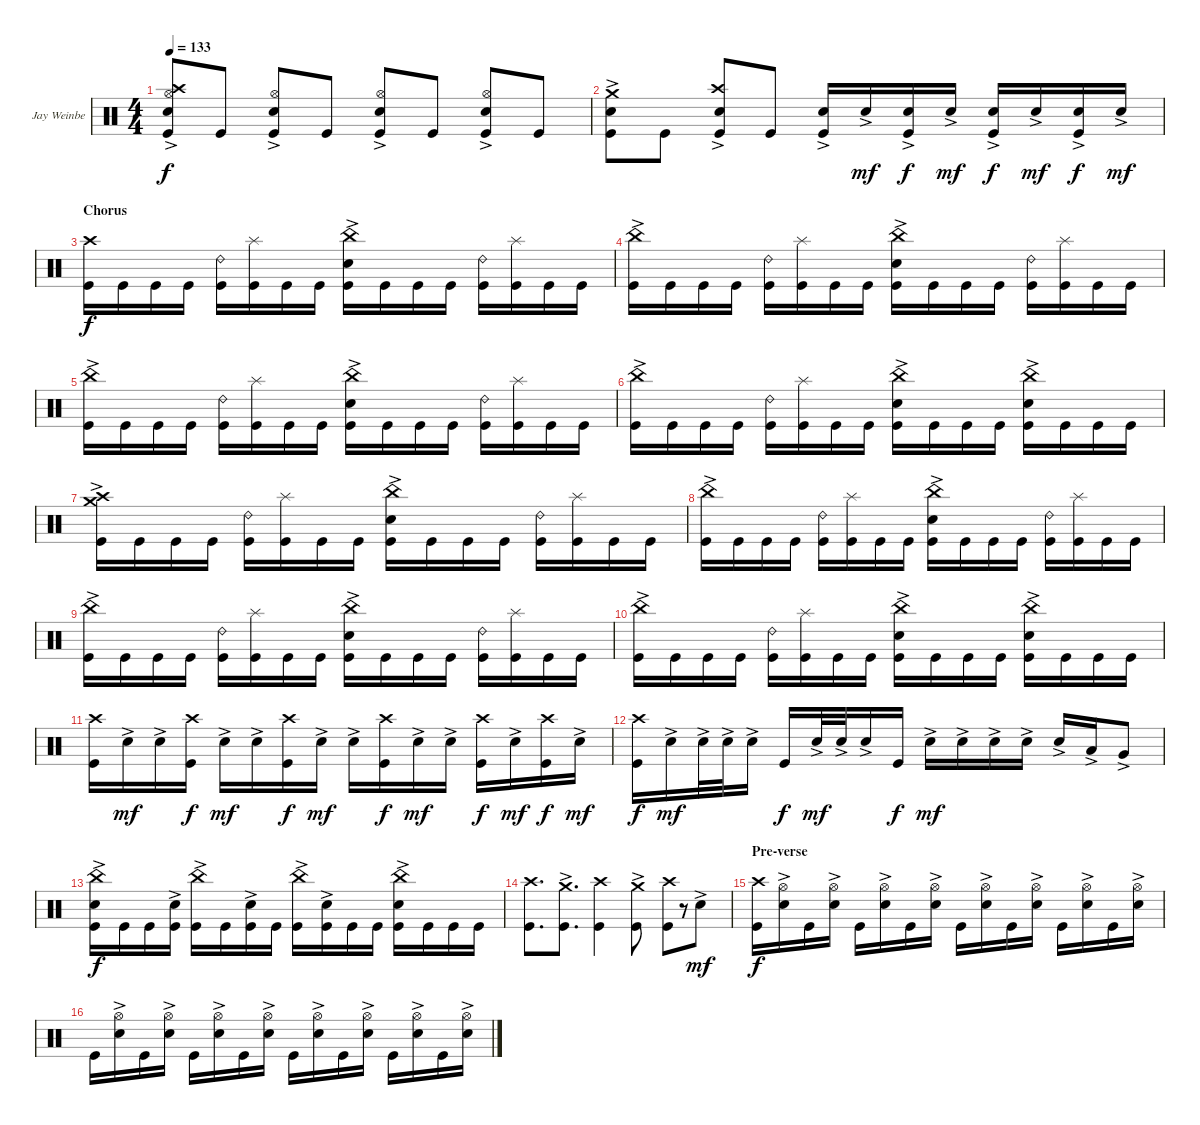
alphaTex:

\bracketExtendMode groupsimilarinstruments
\firstSystemTrackNameOrientation horizontal
\otherSystemsTrackNameOrientation horizontal
\track ("Jay Weinberg" "Jay Weinbe") {instrument percussion}
\staff {score}
\articulation defaults
\ts (4 4)
\tempo 133
\clef neutral
\ks c
("Snare (hit) 2"{ac} "Hi-Hat (open)" "Crash high (hit)" "Kick (hit)").8{dy f} "Kick (hit)".8 ("Snare (hit) 2"{ac} "Hi-Hat (open)" "Kick (hit)").8 "Kick (hit)".8 ("Snare (hit) 2"{ac} "Hi-Hat (open)" "Kick (hit)").8 "Kick (hit)".8 ("Snare (hit) 2"{ac} "Hi-Hat (open)" "Kick (hit)").8 "Kick (hit)".8 |
("Kick (hit)" "Snare (hit) 2"{ac} "Crash medium (hit)").8 "Kick (hit)".8 ("Kick (hit)" "Snare (hit) 2"{ac} "Crash high (hit)").8 "Kick (hit)".8 ("Kick (hit)" "Snare (hit) 2"{ac}).16 "Snare (hit) 2"{ac}.16{dy mf} ("Snare (hit) 2"{ac} "Kick (hit)").16{dy f} "Snare (hit) 2"{ac}.16{dy mf} ("Snare (hit) 2"{ac} "Kick (hit)").16{dy f} "Snare (hit) 2"{ac}.16{dy mf} ("Snare (hit) 2"{ac} "Kick (hit)").16{dy f} "Snare (hit) 2"{ac}.16{dy mf} |
\section ("" "Chorus")
("Kick (hit)" "Crash high (hit)").16{dy f} "Kick (hit)".16 "Kick (hit)".16 "Kick (hit)".16 ("Kick (hit)" "Ride (bell) 2").16 ("Kick (hit)" "Splash (hit)").16 "Kick (hit)".16 "Kick (hit)".16 ("Kick (hit)" "Snare (hit) 2"{ac} "China (hit)"{ac}).16 "Kick (hit)".16 "Kick (hit)".16 "Kick (hit)".16 ("Kick (hit)" "Ride (bell) 2").16 ("Kick (hit)" "Splash (hit)").16 "Kick (hit)".16 "Kick (hit)".16 |
("Kick (hit)" "China (hit)"{ac}).16 "Kick (hit)".16 "Kick (hit)".16 "Kick (hit)".16 ("Kick (hit)" "Ride (bell) 2").16 ("Kick (hit)" "Splash (hit)").16 "Kick (hit)".16 "Kick (hit)".16 ("Kick (hit)" "Snare (hit) 2"{ac} "China (hit)"{ac}).16 "Kick (hit)".16 "Kick (hit)".16 "Kick (hit)".16 ("Kick (hit)" "Ride (bell) 2").16 ("Kick (hit)" "Splash (hit)").16 "Kick (hit)".16 "Kick (hit)".16 |
("Kick (hit)" "China (hit)"{ac}).16 "Kick (hit)".16 "Kick (hit)".16 "Kick (hit)".16 ("Kick (hit)" "Ride (bell) 2").16 ("Kick (hit)" "Splash (hit)").16 "Kick (hit)".16 "Kick (hit)".16 ("Kick (hit)" "Snare (hit) 2"{ac} "China (hit)"{ac}).16 "Kick (hit)".16 "Kick (hit)".16 "Kick (hit)".16 ("Kick (hit)" "Ride (bell) 2").16 ("Kick (hit)" "Splash (hit)").16 "Kick (hit)".16 "Kick (hit)".16 |
("Kick (hit)" "China (hit)"{ac}).16 "Kick (hit)".16 "Kick (hit)".16 "Kick (hit)".16 ("Kick (hit)" "Ride (bell) 2").16 ("Kick (hit)" "Splash (hit)").16 "Kick (hit)".16 "Kick (hit)".16 ("Kick (hit)" "Snare (hit) 2"{ac} "China (hit)"{ac}).16 "Kick (hit)".16 "Kick (hit)".16 "Kick (hit)".16 ("Kick (hit)" "Snare (hit) 2"{ac} "China (hit)"{ac}).16 "Kick (hit)".16 "Kick (hit)".16 "Kick (hit)".16 |
("Kick (hit)" "Crash high (hit)" "Crash medium (hit)"{ac}).16 "Kick (hit)".16 "Kick (hit)".16 "Kick (hit)".16 ("Kick (hit)" "Ride (bell) 2").16 ("Kick (hit)" "Splash (hit)").16 "Kick (hit)".16 "Kick (hit)".16 ("Kick (hit)" "Snare (hit) 2"{ac} "China (hit)"{ac}).16 "Kick (hit)".16 "Kick (hit)".16 "Kick (hit)".16 ("Kick (hit)" "Ride (bell) 2").16 ("Kick (hit)" "Splash (hit)").16 "Kick (hit)".16 "Kick (hit)".16 |
("Kick (hit)" "China (hit)"{ac}).16 "Kick (hit)".16 "Kick (hit)".16 "Kick (hit)".16 ("Kick (hit)" "Ride (bell) 2").16 ("Kick (hit)" "Splash (hit)").16 "Kick (hit)".16 "Kick (hit)".16 ("Kick (hit)" "Snare (hit) 2"{ac} "China (hit)"{ac}).16 "Kick (hit)".16 "Kick (hit)".16 "Kick (hit)".16 ("Kick (hit)" "Ride (bell) 2").16 ("Kick (hit)" "Splash (hit)").16 "Kick (hit)".16 "Kick (hit)".16 |
("Kick (hit)" "China (hit)"{ac}).16 "Kick (hit)".16 "Kick (hit)".16 "Kick (hit)".16 ("Kick (hit)" "Ride (bell) 2").16 ("Kick (hit)" "Splash (hit)").16 "Kick (hit)".16 "Kick (hit)".16 ("Kick (hit)" "Snare (hit) 2"{ac} "China (hit)"{ac}).16 "Kick (hit)".16 "Kick (hit)".16 "Kick (hit)".16 ("Kick (hit)" "Ride (bell) 2").16 ("Kick (hit)" "Splash (hit)").16 "Kick (hit)".16 "Kick (hit)".16 |
("Kick (hit)" "China (hit)"{ac}).16 "Kick (hit)".16 "Kick (hit)".16 "Kick (hit)".16 ("Kick (hit)" "Ride (bell) 2").16 ("Kick (hit)" "Splash (hit)").16 "Kick (hit)".16 "Kick (hit)".16 ("Kick (hit)" "Snare (hit) 2"{ac} "China (hit)"{ac}).16 "Kick (hit)".16 "Kick (hit)".16 "Kick (hit)".16 ("Kick (hit)" "Snare (hit) 2"{ac} "China (hit)"{ac}).16 "Kick (hit)".16 "Kick (hit)".16 "Kick (hit)".16 |
("Kick (hit)" "Crash high (hit)").16 "Snare (hit) 2"{ac}.16{dy mf} "Snare (hit) 2"{ac}.16 ("Kick (hit)" "Crash high (hit)").16{dy f} "Snare (hit) 2"{ac}.16{dy mf} "Snare (hit) 2"{ac}.16 ("Kick (hit)" "Crash high (hit)").16{dy f} "Snare (hit) 2"{ac}.16{dy mf} "Snare (hit) 2"{ac}.16 ("Kick (hit)" "Crash high (hit)").16{dy f} "Snare (hit) 2"{ac}.16{dy mf} "Snare (hit) 2"{ac}.16 ("Kick (hit)" "Crash high (hit)").16{dy f} "Snare (hit) 2"{ac}.16{dy mf} ("Kick (hit)" "Crash high (hit)").16{dy f} "Snare (hit) 2"{ac}.16{dy mf} |
("Kick (hit)" "Crash high (hit)").16{dy f} "Snare (hit) 2"{ac}.16{dy mf} "Snare (hit) 2"{ac}.32 "Snare (hit) 2"{ac}.32 "Snare (hit) 2"{ac}.16 "Kick (hit)".16{dy f} "Snare (hit) 2"{ac}.32{dy mf} "Snare (hit) 2"{ac}.32 "Snare (hit) 2"{ac}.16 "Kick (hit)".16{dy f} "Snare (hit) 2"{ac}.16{dy mf} "Snare (hit) 2"{ac}.16 "Snare (hit) 2"{ac}.16 "Snare (hit) 2"{ac}.16 "Snare (hit) 2"{ac}.16 "Low Tom (hit)"{ac}.16 "Very Low Tom (hit)"{ac}.8 |
("Kick (hit)" "China (hit)"{ac} "Snare (hit) 2"{ac}).16{dy f} "Kick (hit)".16 "Kick (hit)".16 ("Kick (hit)" "Snare (hit) 2"{ac}).16 ("Kick (hit)" "China (hit)"{ac}).16 "Kick (hit)".16 ("Kick (hit)" "Snare (hit) 2"{ac}).16 "Kick (hit)".16 ("Kick (hit)" "China (hit)"{ac}).16 ("Kick (hit)" "Snare (hit) 2"{ac}).16 "Kick (hit)".16 "Kick (hit)".16 ("Kick (hit)" "China (hit)"{ac} "Snare (hit) 2"{ac}).16 "Kick (hit)".16 "Kick (hit)".16 "Kick (hit)".16 |
("Kick (hit)" "Crash high (hit)").8{d} ("Kick (hit)" "Crash medium (hit)"{ac}).8{d} ("Kick (hit)" "Crash high (hit)").4 ("Kick (hit)" "Crash medium (hit)"{ac}).8 ("Kick (hit)" "Crash high (hit)").8 r.8{gr} "Snare (hit) 2"{ac}.8{dy mf} |
\section ("" "Pre-verse")
("Kick (hit)" "Crash high (hit)").16{dy f} ("Snare (hit) 2"{ac} "Hi-Hat (open)").16 "Kick (hit)".16 ("Snare (hit) 2"{ac} "Hi-Hat (open)").16 "Kick (hit)".16 ("Snare (hit) 2"{ac} "Hi-Hat (open)").16 "Kick (hit)".16 ("Snare (hit) 2"{ac} "Hi-Hat (open)").16 "Kick (hit)".16 ("Snare (hit) 2"{ac} "Hi-Hat (open)").16 "Kick (hit)".16 ("Snare (hit) 2"{ac} "Hi-Hat (open)").16 "Kick (hit)".16 ("Snare (hit) 2"{ac} "Hi-Hat (open)").16 "Kick (hit)".16 ("Snare (hit) 2"{ac} "Hi-Hat (open)").16 |
"Kick (hit)".16 ("Snare (hit) 2"{ac} "Hi-Hat (open)").16 "Kick (hit)".16 ("Snare (hit) 2"{ac} "Hi-Hat (open)").16 "Kick (hit)".16 ("Snare (hit) 2"{ac} "Hi-Hat (open)").16 "Kick (hit)".16 ("Snare (hit) 2"{ac} "Hi-Hat (open)").16 "Kick (hit)".16 ("Snare (hit) 2"{ac} "Hi-Hat (open)").16 "Kick (hit)".16 ("Snare (hit) 2"{ac} "Hi-Hat (open)").16 "Kick (hit)".16 ("Snare (hit) 2"{ac} "Hi-Hat (open)").16 "Kick (hit)".16 ("Snare (hit) 2"{ac} "Hi-Hat (open)").16
